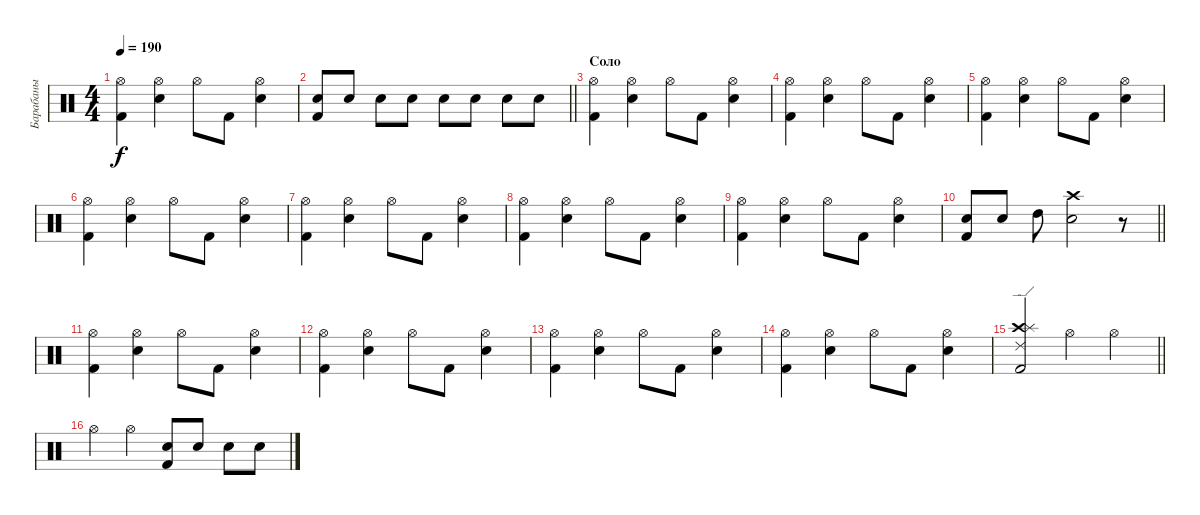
\track ("Барабаны" "Барабаны") {instrument percussion}
\staff {score}
\articulation defaults
\ts (4 4)
\tempo 190
\clef neutral
\ks c
("Kick (hit) 2" "Hi-Hat (open)").4{dy f} ("Hi-Hat (open)" "Electric Snare (hit)").4 "Hi-Hat (open)".8 "Kick (hit) 2".8 ("Hi-Hat (open)" "Electric Snare (hit)").4 |
\barLineRight lightlight
("Kick (hit) 2" "Electric Snare (hit)").8 "Electric Snare (hit)".8 "Electric Snare (hit)".8 "Electric Snare (hit)".8 "Electric Snare (hit)".8 "Electric Snare (hit)".8 "Electric Snare (hit)".8 "Electric Snare (hit)".8 |
\section ("" "Соло")
("Kick (hit) 2" "Hi-Hat (open)").4 ("Hi-Hat (open)" "Electric Snare (hit)").4 "Hi-Hat (open)".8 "Kick (hit) 2".8 ("Hi-Hat (open)" "Electric Snare (hit)").4 |
("Kick (hit) 2" "Hi-Hat (open)").4 ("Hi-Hat (open)" "Electric Snare (hit)").4 "Hi-Hat (open)".8 "Kick (hit) 2".8 ("Hi-Hat (open)" "Electric Snare (hit)").4 |
("Kick (hit) 2" "Hi-Hat (open)").4 ("Hi-Hat (open)" "Electric Snare (hit)").4 "Hi-Hat (open)".8 "Kick (hit) 2".8 ("Hi-Hat (open)" "Electric Snare (hit)").4 |
("Kick (hit) 2" "Hi-Hat (open)").4 ("Hi-Hat (open)" "Electric Snare (hit)").4 "Hi-Hat (open)".8 "Kick (hit) 2".8 ("Hi-Hat (open)" "Electric Snare (hit)").4 |
("Kick (hit) 2" "Hi-Hat (open)").4 ("Hi-Hat (open)" "Electric Snare (hit)").4 "Hi-Hat (open)".8 "Kick (hit) 2".8 ("Hi-Hat (open)" "Electric Snare (hit)").4 |
("Kick (hit) 2" "Hi-Hat (open)").4 ("Hi-Hat (open)" "Electric Snare (hit)").4 "Hi-Hat (open)".8 "Kick (hit) 2".8 ("Hi-Hat (open)" "Electric Snare (hit)").4 |
("Kick (hit) 2" "Hi-Hat (open)").4 ("Hi-Hat (open)" "Electric Snare (hit)").4 "Hi-Hat (open)".8 "Kick (hit) 2".8 ("Hi-Hat (open)" "Electric Snare (hit)").4 |
\barLineRight lightlight
("Kick (hit) 2" "Electric Snare (hit)").8 "Electric Snare (hit)".8 "High Tom (hit)".8 ("Electric Snare (hit)" "Crash high (hit)").2 r.8 |
("Kick (hit) 2" "Hi-Hat (open)").4 ("Hi-Hat (open)" "Electric Snare (hit)").4 "Hi-Hat (open)".8 "Kick (hit) 2".8 ("Hi-Hat (open)" "Electric Snare (hit)").4 |
("Kick (hit) 2" "Hi-Hat (open)").4 ("Hi-Hat (open)" "Electric Snare (hit)").4 "Hi-Hat (open)".8 "Kick (hit) 2".8 ("Hi-Hat (open)" "Electric Snare (hit)").4 |
("Kick (hit) 2" "Hi-Hat (open)").4 ("Hi-Hat (open)" "Electric Snare (hit)").4 "Hi-Hat (open)".8 "Kick (hit) 2".8 ("Hi-Hat (open)" "Electric Snare (hit)").4 |
("Kick (hit) 2" "Hi-Hat (open)").4 ("Hi-Hat (open)" "Electric Snare (hit)").4 "Hi-Hat (open)".8 "Kick (hit) 2".8 ("Hi-Hat (open)" "Electric Snare (hit)").4 |
\barLineRight lightlight
("Crash high (hit)" "Splash (hit)" "Kick (hit) 2" "Ride (edge) 2").2 "Hi-Hat (open)".4 "Hi-Hat (open)".4 |
"Hi-Hat (open)".4 "Hi-Hat (open)".4 ("Electric Snare (hit)" "Kick (hit) 2").8 "Electric Snare (hit)".8 "Electric Snare (hit)".8 "Electric Snare (hit)".8
